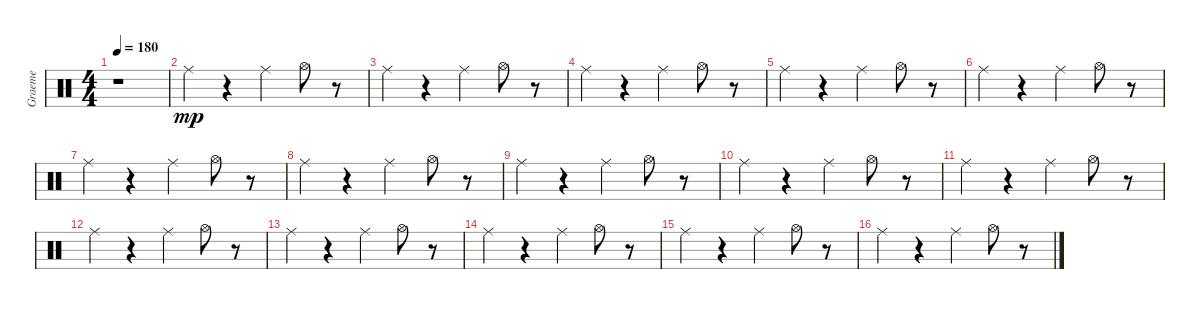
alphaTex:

\track ("Graeme" "Graeme") {instrument percussion}
\staff {score}
\articulation defaults
\ts (4 4)
\tempo 180
\clef neutral
\ks c
r.1{dy fff} |
"Ride (middle)".4{dy mp} r.4 "Ride (middle)".4 "Hi-Hat (open)".8 r.8 |
"Ride (middle)".4 r.4 "Ride (middle)".4 "Hi-Hat (open)".8 r.8 |
"Ride (middle)".4 r.4 "Ride (middle)".4 "Hi-Hat (open)".8 r.8 |
"Ride (middle)".4 r.4 "Ride (middle)".4 "Hi-Hat (open)".8 r.8 |
"Ride (middle)".4 r.4 "Ride (middle)".4 "Hi-Hat (open)".8 r.8 |
"Ride (middle)".4 r.4 "Ride (middle)".4 "Hi-Hat (open)".8 r.8 |
"Ride (middle)".4 r.4 "Ride (middle)".4 "Hi-Hat (open)".8 r.8 |
"Ride (middle)".4 r.4 "Ride (middle)".4 "Hi-Hat (open)".8 r.8 |
"Ride (middle)".4 r.4 "Ride (middle)".4 "Hi-Hat (open)".8 r.8 |
"Ride (middle)".4 r.4 "Ride (middle)".4 "Hi-Hat (open)".8 r.8 |
"Ride (middle)".4 r.4 "Ride (middle)".4 "Hi-Hat (open)".8 r.8 |
"Ride (middle)".4 r.4 "Ride (middle)".4 "Hi-Hat (open)".8 r.8 |
"Ride (middle)".4 r.4 "Ride (middle)".4 "Hi-Hat (open)".8 r.8 |
"Ride (middle)".4 r.4 "Ride (middle)".4 "Hi-Hat (open)".8 r.8 |
"Ride (middle)".4 r.4 "Ride (middle)".4 "Hi-Hat (open)".8 r.8
